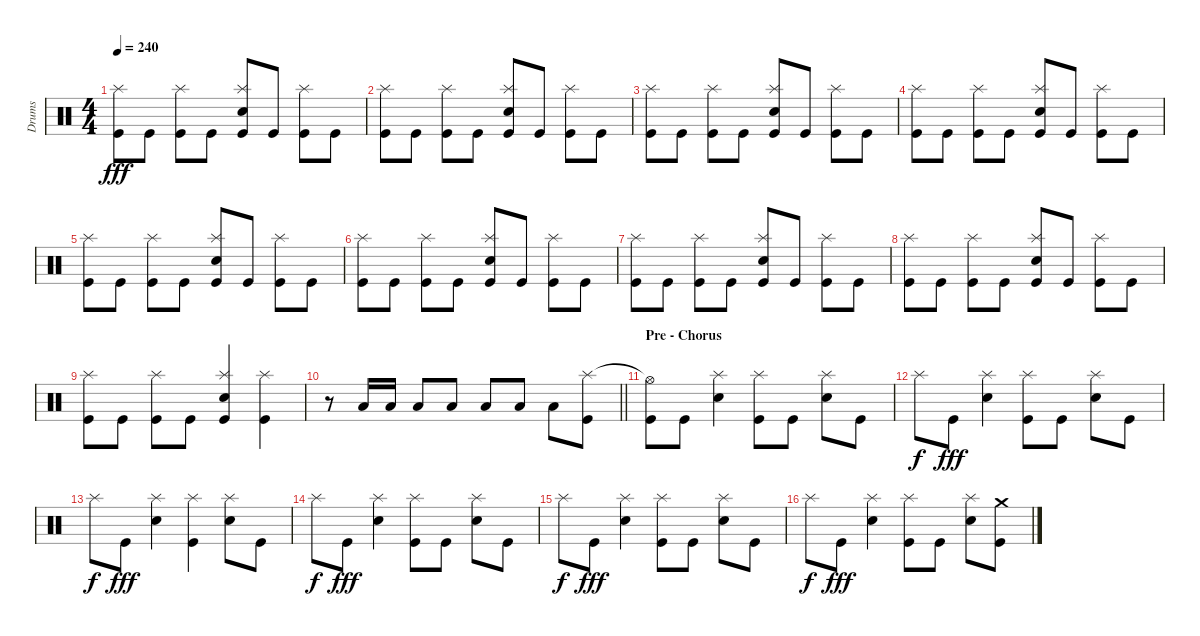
\track ("Drums" "Drums") {instrument percussion}
\staff {score}
\articulation defaults
\ts (4 4)
\tempo 240
\clef neutral
\ks c
("Kick (hit)" "Splash (hit)").8{dy fff} "Kick (hit)".8 ("Kick (hit)" "Splash (hit)").8 "Kick (hit)".8 ("Kick (hit)" "Electric Snare (hit)" "Splash (hit)").8 "Kick (hit)".8 ("Kick (hit)" "Splash (hit)").8 "Kick (hit)".8 |
("Kick (hit)" "Splash (hit)").8 "Kick (hit)".8 ("Kick (hit)" "Splash (hit)").8 "Kick (hit)".8 ("Kick (hit)" "Electric Snare (hit)" "Splash (hit)").8 "Kick (hit)".8 ("Kick (hit)" "Splash (hit)").8 "Kick (hit)".8 |
("Kick (hit)" "Splash (hit)").8 "Kick (hit)".8 ("Kick (hit)" "Splash (hit)").8 "Kick (hit)".8 ("Kick (hit)" "Electric Snare (hit)" "Splash (hit)").8 "Kick (hit)".8 ("Kick (hit)" "Splash (hit)").8 "Kick (hit)".8 |
("Kick (hit)" "Splash (hit)").8 "Kick (hit)".8 ("Kick (hit)" "Splash (hit)").8 "Kick (hit)".8 ("Kick (hit)" "Electric Snare (hit)" "Splash (hit)").8 "Kick (hit)".8 ("Kick (hit)" "Splash (hit)").8 "Kick (hit)".8 |
("Kick (hit)" "Splash (hit)").8 "Kick (hit)".8 ("Kick (hit)" "Splash (hit)").8 "Kick (hit)".8 ("Kick (hit)" "Electric Snare (hit)" "Splash (hit)").8 "Kick (hit)".8 ("Kick (hit)" "Splash (hit)").8 "Kick (hit)".8 |
("Kick (hit)" "Splash (hit)").8 "Kick (hit)".8 ("Kick (hit)" "Splash (hit)").8 "Kick (hit)".8 ("Kick (hit)" "Electric Snare (hit)" "Splash (hit)").8 "Kick (hit)".8 ("Kick (hit)" "Splash (hit)").8 "Kick (hit)".8 |
("Kick (hit)" "Splash (hit)").8 "Kick (hit)".8 ("Kick (hit)" "Splash (hit)").8 "Kick (hit)".8 ("Kick (hit)" "Electric Snare (hit)" "Splash (hit)").8 "Kick (hit)".8 ("Kick (hit)" "Splash (hit)").8 "Kick (hit)".8 |
("Kick (hit)" "Splash (hit)").8 "Kick (hit)".8 ("Kick (hit)" "Splash (hit)").8 "Kick (hit)".8 ("Kick (hit)" "Electric Snare (hit)" "Splash (hit)").8 "Kick (hit)".8 ("Kick (hit)" "Splash (hit)").8 "Kick (hit)".8 |
("Kick (hit)" "Splash (hit)").8 "Kick (hit)".8 ("Kick (hit)" "Splash (hit)").8 "Kick (hit)".8 ("Kick (hit)" "Electric Snare (hit)" "Splash (hit)").4 ("Kick (hit)" "Splash (hit)").4 |
\barLineRight lightlight
r.8 "Low Tom (hit)".16 "Low Tom (hit)".16 "Low Tom (hit)".8 "Low Tom (hit)".8 "Low Tom (hit)".8 "Low Floor Tom (hit)".8 "Low Floor Tom (hit)".8 ("Kick (hit)" "Splash (hit)").8 |
\section ("" "Pre - Chorus")
("Kick (hit)" "Hi-Hat (open)"{t}).8 "Kick (hit)".8 ("Electric Snare (hit)" "Splash (hit)").4 ("Kick (hit)" "Splash (hit)").8 "Kick (hit)".8 ("Electric Snare (hit)" "Splash (hit)").8 "Kick (hit)".8 |
"Splash (hit)".8{dy f} "Kick (hit)".8{dy fff} ("Electric Snare (hit)" "Splash (hit)").4 ("Kick (hit)" "Splash (hit)").8 "Kick (hit)".8 ("Electric Snare (hit)" "Splash (hit)").8 "Kick (hit)".8 |
"Splash (hit)".8{dy f} "Kick (hit)".8{dy fff} ("Electric Snare (hit)" "Splash (hit)").4 ("Kick (hit)" "Splash (hit)").4 ("Electric Snare (hit)" "Splash (hit)").8 "Kick (hit)".8 |
"Splash (hit)".8{dy f} "Kick (hit)".8{dy fff} ("Electric Snare (hit)" "Splash (hit)").4 ("Kick (hit)" "Splash (hit)").8 "Kick (hit)".8 ("Electric Snare (hit)" "Splash (hit)").8 "Kick (hit)".8 |
"Splash (hit)".8{dy f} "Kick (hit)".8{dy fff} ("Electric Snare (hit)" "Splash (hit)").4 ("Kick (hit)" "Splash (hit)").8 "Kick (hit)".8 ("Electric Snare (hit)" "Splash (hit)").8 "Kick (hit)".8 |
"Splash (hit)".8{dy f} "Kick (hit)".8{dy fff} ("Electric Snare (hit)" "Splash (hit)").4 ("Kick (hit)" "Splash (hit)").8 "Kick (hit)".8 ("Electric Snare (hit)" "Splash (hit)").8 ("Kick (hit)" "Crash medium (hit)").8
